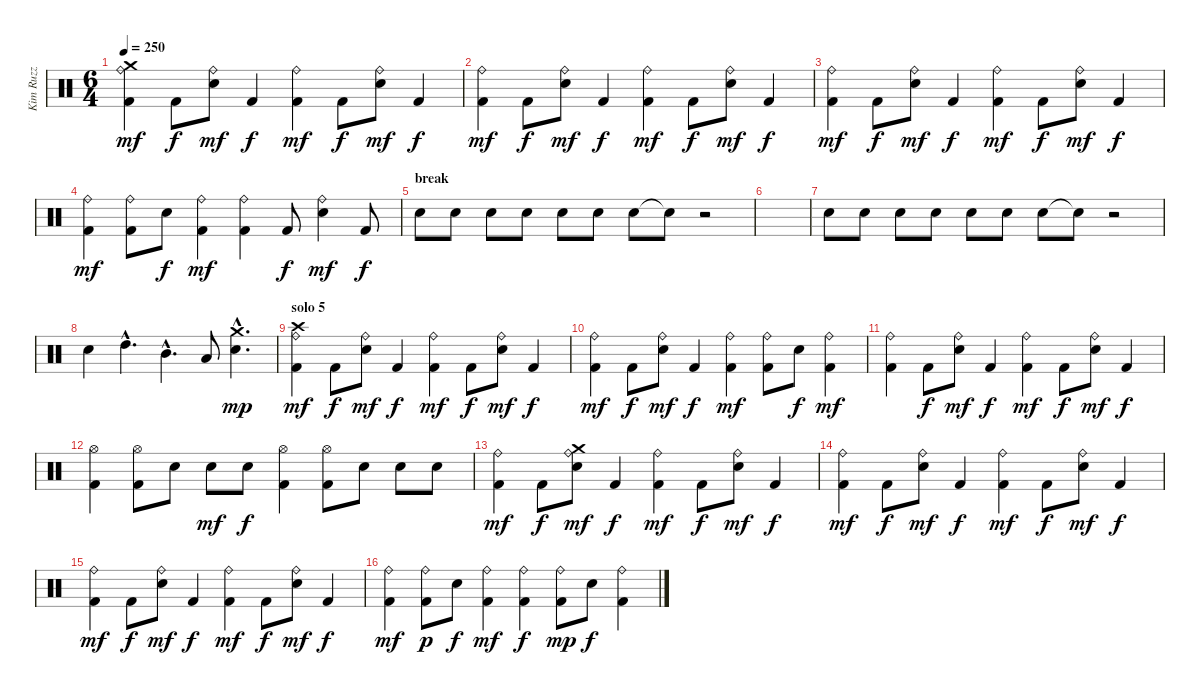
\track ("Kim Ruzz" "Kim Ruzz") {instrument percussion}
\staff {score}
\articulation defaults
\ts (6 4)
\tempo 250
\clef neutral
\ks c
("Kick (hit) 2" "Ride (bell)" "Crash medium (hit)").4{dy mf} "Kick (hit) 2".8{dy f} ("Ride (bell)" "Snare (hit) 2").8{dy mf} "Kick (hit) 2".4{dy f} ("Kick (hit) 2" "Ride (bell)").4{dy mf} "Kick (hit) 2".8{dy f} ("Ride (bell)" "Snare (hit) 2").8{dy mf} "Kick (hit) 2".4{dy f} |
("Kick (hit) 2" "Ride (bell)").4{dy mf} "Kick (hit) 2".8{dy f} ("Ride (bell)" "Snare (hit) 2").8{dy mf} "Kick (hit) 2".4{dy f} ("Kick (hit) 2" "Ride (bell)").4{dy mf} "Kick (hit) 2".8{dy f} ("Ride (bell)" "Snare (hit) 2").8{dy mf} "Kick (hit) 2".4{dy f} |
("Kick (hit) 2" "Ride (bell)").4{dy mf} "Kick (hit) 2".8{dy f} ("Ride (bell)" "Snare (hit) 2").8{dy mf} "Kick (hit) 2".4{dy f} ("Kick (hit) 2" "Ride (bell)").4{dy mf} "Kick (hit) 2".8{dy f} ("Ride (bell)" "Snare (hit) 2").8{dy mf} "Kick (hit) 2".4{dy f} |
("Kick (hit) 2" "Ride (bell)").4{dy mf} ("Kick (hit) 2" "Ride (bell)").8 "Snare (hit) 2".8{dy f} ("Kick (hit) 2" "Ride (bell)").4{dy mf} ("Kick (hit) 2" "Ride (bell)").4 "Kick (hit) 2".8{dy f} ("Ride (bell)" "Snare (hit) 2").4{dy mf} "Kick (hit) 2".8{dy f} |
\section ("" "break")
"Snare (hit) 2".8 "Snare (hit) 2".8 "Snare (hit) 2".8 "Snare (hit) 2".8 "Snare (hit) 2".8 "Snare (hit) 2".8 "Snare (hit) 2".8 "Snare (hit)"{t}.8 r.2 |
|
"Snare (hit) 2".8 "Snare (hit) 2".8 "Snare (hit) 2".8 "Snare (hit) 2".8 "Snare (hit) 2".8 "Snare (hit) 2".8 "Snare (hit) 2".8 "Snare (hit)"{t}.8 r.2 |
"Snare (hit) 2".4 "High Tom (hit)"{hac}.4{d} "Mid Tom (hit)"{hac}.4{d} "Low Tom (hit)".8 ("Snare (hit) 2"{hac} "Crash medium (hit)"{hac}).4{d dy mp} |
\section ("" "solo 5")
("Kick (hit) 2" "Ride (bell)" "Crash high (hit)").4{dy mf} "Kick (hit) 2".8{dy f} ("Ride (bell)" "Snare (hit) 2").8{dy mf} "Kick (hit) 2".4{dy f} ("Kick (hit) 2" "Ride (bell)").4{dy mf} "Kick (hit) 2".8{dy f} ("Ride (bell)" "Snare (hit) 2").8{dy mf} "Kick (hit) 2".4{dy f} |
("Kick (hit) 2" "Ride (bell)").4{dy mf} "Kick (hit) 2".8{dy f} ("Ride (bell)" "Snare (hit) 2").8{dy mf} "Kick (hit) 2".4{dy f} ("Kick (hit) 2" "Ride (bell)").4{dy mf} ("Kick (hit) 2" "Ride (bell)").8 "Snare (hit) 2".8{dy f} ("Kick (hit) 2" "Ride (bell)").4{dy mf} |
("Kick (hit) 2" "Ride (bell)").4 "Kick (hit) 2".8{dy f} ("Ride (bell)" "Snare (hit) 2").8{dy mf} "Kick (hit) 2".4{dy f} ("Kick (hit) 2" "Ride (bell)").4{dy mf} "Kick (hit) 2".8{dy f} ("Ride (bell)" "Snare (hit) 2").8{dy mf} "Kick (hit) 2".4{dy f} |
("Kick (hit) 2" "Hi-Hat (open)").4 ("Kick (hit) 2" "Hi-Hat (open)").8 "Snare (hit) 2".8 "Snare (hit) 2".8{dy mf} "Snare (hit) 2".8{dy f} ("Kick (hit) 2" "Hi-Hat (open)").4 ("Kick (hit) 2" "Hi-Hat (open)").8 "Snare (hit) 2".8 "Snare (hit) 2".8 "Snare (hit) 2".8 |
("Kick (hit) 2" "Ride (bell)").4{dy mf} "Kick (hit) 2".8{dy f} ("Ride (bell)" "Snare (hit) 2" "Crash medium (hit)").8{dy mf} "Kick (hit) 2".4{dy f} ("Kick (hit) 2" "Ride (bell)").4{dy mf} "Kick (hit) 2".8{dy f} ("Ride (bell)" "Snare (hit) 2").8{dy mf} "Kick (hit) 2".4{dy f} |
("Kick (hit) 2" "Ride (bell)").4{dy mf} "Kick (hit) 2".8{dy f} ("Ride (bell)" "Snare (hit) 2").8{dy mf} "Kick (hit) 2".4{dy f} ("Kick (hit) 2" "Ride (bell)").4{dy mf} "Kick (hit) 2".8{dy f} ("Ride (bell)" "Snare (hit) 2").8{dy mf} "Kick (hit) 2".4{dy f} |
("Kick (hit) 2" "Ride (bell)").4{dy mf} "Kick (hit) 2".8{dy f} ("Ride (bell)" "Snare (hit) 2").8{dy mf} "Kick (hit) 2".4{dy f} ("Kick (hit) 2" "Ride (bell)").4{dy mf} "Kick (hit) 2".8{dy f} ("Ride (bell)" "Snare (hit) 2").8{dy mf} "Kick (hit) 2".4{dy f} |
("Kick (hit) 2" "Ride (bell)").4{dy mf} ("Kick (hit) 2" "Ride (bell)").8{dy p} "Snare (hit) 2".8{dy f} ("Kick (hit) 2" "Ride (bell)").4{dy mf} ("Kick (hit) 2" "Ride (bell)").4{dy f} ("Kick (hit) 2" "Ride (bell)").8{dy mp} "Snare (hit) 2".8{dy f} ("Kick (hit) 2" "Ride (bell)").4
